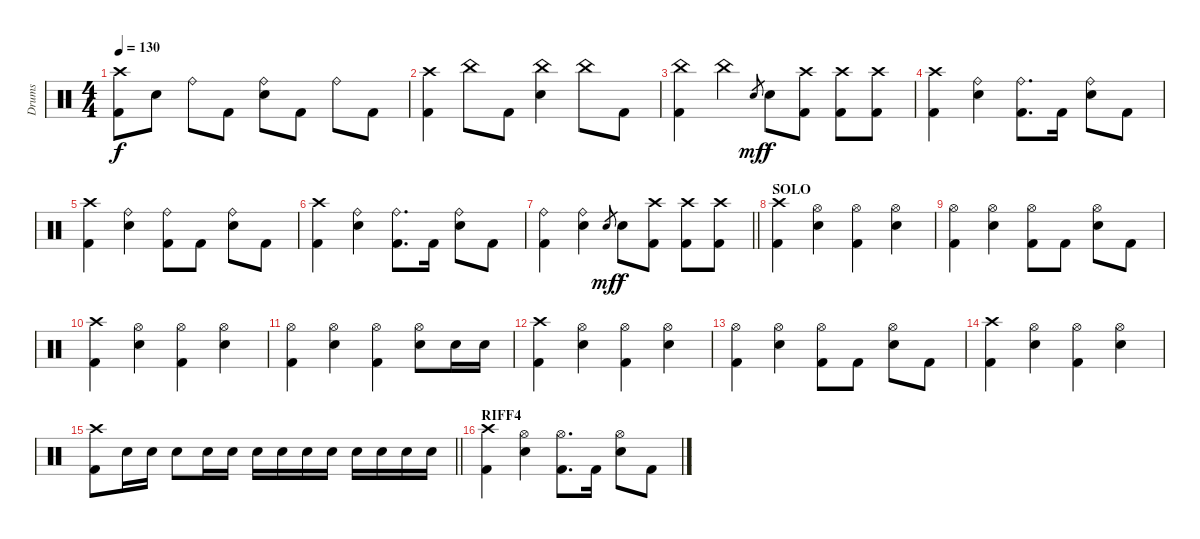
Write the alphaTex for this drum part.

\track ("Drums" "Drums") {instrument percussion}
\staff {score}
\articulation defaults
\ts (4 4)
\tempo 130
\clef neutral
\ks c
("Crash high (hit)" "Kick (hit) 2").8{dy f} "Electric Snare (hit)".8 "Ride (bell)".8 "Kick (hit) 2".8 ("Ride (bell)" "Electric Snare (hit)").8 "Kick (hit) 2".8 "Ride (bell)".8 "Kick (hit) 2".8 |
("Crash high (hit)" "Kick (hit) 2").4 "China (hit)".8 "Kick (hit) 2".8 ("China (hit)" "Electric Snare (hit)").4 "China (hit)".8 "Kick (hit) 2".8 |
("China (hit)" "Kick (hit) 2").4 "China (hit)".4 "Electric Snare (hit)".8{gr dy mf} "Electric Snare (hit)".8{dy f} ("Crash high (hit)" "Kick (hit) 2").8 ("Crash high (hit)" "Kick (hit) 2").8 ("Crash high (hit)" "Kick (hit) 2").8 |
("Crash high (hit)" "Kick (hit) 2").4 ("Ride (bell)" "Electric Snare (hit)").4 ("Ride (bell)" "Kick (hit) 2").8{d} "Kick (hit) 2".16 ("Ride (bell)" "Electric Snare (hit)").8 "Kick (hit) 2".8 |
("Crash high (hit)" "Kick (hit) 2").4 ("Ride (bell)" "Electric Snare (hit)").4 ("Ride (bell)" "Kick (hit) 2").8 "Kick (hit) 2".8 ("Ride (bell)" "Electric Snare (hit)").8 "Kick (hit) 2".8 |
("Crash high (hit)" "Kick (hit) 2").4 ("Ride (bell)" "Electric Snare (hit)").4 ("Ride (bell)" "Kick (hit) 2").8{d} "Kick (hit) 2".16 ("Ride (bell)" "Electric Snare (hit)").8 "Kick (hit) 2".8 |
\barLineRight lightlight
("Ride (bell)" "Kick (hit) 2").4 ("Ride (bell)" "Electric Snare (hit)").4 "Electric Snare (hit)".8{gr dy mf} "Electric Snare (hit)".8{dy f} ("Crash high (hit)" "Kick (hit) 2").8 ("Crash high (hit)" "Kick (hit) 2").8 ("Crash high (hit)" "Kick (hit) 2").8 |
\section ("" "SOLO")
("Crash high (hit)" "Kick (hit) 2").4 ("Hi-Hat (open)" "Electric Snare (hit)").4 ("Hi-Hat (open)" "Kick (hit) 2").4 ("Hi-Hat (open)" "Electric Snare (hit)").4 |
("Hi-Hat (open)" "Kick (hit) 2").4 ("Hi-Hat (open)" "Electric Snare (hit)").4 ("Hi-Hat (open)" "Kick (hit) 2").8 "Kick (hit) 2".8 ("Hi-Hat (open)" "Electric Snare (hit)").8 "Kick (hit) 2".8 |
("Crash high (hit)" "Kick (hit) 2").4 ("Hi-Hat (open)" "Electric Snare (hit)").4 ("Hi-Hat (open)" "Kick (hit) 2").4 ("Hi-Hat (open)" "Electric Snare (hit)").4 |
("Hi-Hat (open)" "Kick (hit) 2").4 ("Hi-Hat (open)" "Electric Snare (hit)").4 ("Hi-Hat (open)" "Kick (hit) 2").4 ("Hi-Hat (open)" "Electric Snare (hit)").8 "Electric Snare (hit)".16 "Electric Snare (hit)".16 |
("Crash high (hit)" "Kick (hit) 2").4 ("Hi-Hat (open)" "Electric Snare (hit)").4 ("Hi-Hat (open)" "Kick (hit) 2").4 ("Hi-Hat (open)" "Electric Snare (hit)").4 |
("Hi-Hat (open)" "Kick (hit) 2").4 ("Hi-Hat (open)" "Electric Snare (hit)").4 ("Hi-Hat (open)" "Kick (hit) 2").8 "Kick (hit) 2".8 ("Hi-Hat (open)" "Electric Snare (hit)").8 "Kick (hit) 2".8 |
("Crash high (hit)" "Kick (hit) 2").4 ("Hi-Hat (open)" "Electric Snare (hit)").4 ("Hi-Hat (open)" "Kick (hit) 2").4 ("Hi-Hat (open)" "Electric Snare (hit)").4 |
\barLineRight lightlight
("Crash high (hit)" "Kick (hit) 2").8 "Electric Snare (hit)".16 "Electric Snare (hit)".16 "Electric Snare (hit)".8 "Electric Snare (hit)".16 "Electric Snare (hit)".16 "Electric Snare (hit)".16 "Electric Snare (hit)".16 "Electric Snare (hit)".16 "Electric Snare (hit)".16 "Electric Snare (hit)".16 "Electric Snare (hit)".16 "Electric Snare (hit)".16 "Electric Snare (hit)".16 |
\section ("" "RIFF4")
("Crash high (hit)" "Kick (hit) 2").4 ("Hi-Hat (open)" "Electric Snare (hit)").4 ("Hi-Hat (open)" "Kick (hit) 2").8{d} "Kick (hit) 2".16 ("Hi-Hat (open)" "Electric Snare (hit)").8 "Kick (hit) 2".8
